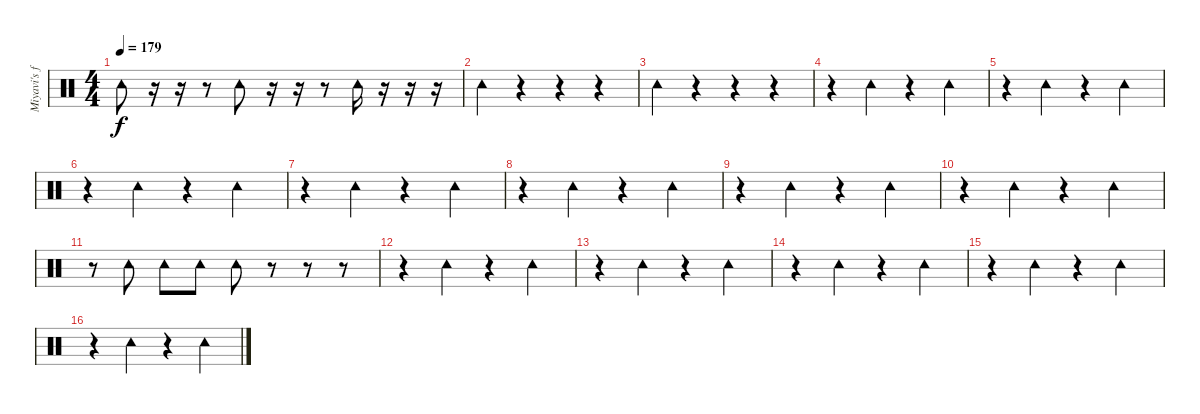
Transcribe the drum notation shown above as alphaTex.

\track ("Miyavi's foot" "Miyavi's f") {instrument percussion}
\staff {score}
\articulation defaults
\ts (4 4)
\tempo 179
\clef neutral
\ks c "Tambourine (hit)".8{dy f}
r.16 r.16 r.8 "Tambourine (hit)".8 r.16 r.16 r.8 "Tambourine (hit)".16 r.16 r.16 r.16 |
"Tambourine (hit)".4 r.4 r.4 r.4 |
"Tambourine (hit)".4 r.4 r.4 r.4 |
r.4 "Tambourine (hit)".4 r.4 "Tambourine (hit)".4 |
r.4 "Tambourine (hit)".4 r.4 "Tambourine (hit)".4 |
r.4 "Tambourine (hit)".4 r.4 "Tambourine (hit)".4 |
r.4 "Tambourine (hit)".4 r.4 "Tambourine (hit)".4 |
r.4 "Tambourine (hit)".4 r.4 "Tambourine (hit)".4 |
r.4 "Tambourine (hit)".4 r.4 "Tambourine (hit)".4 |
r.4 "Tambourine (hit)".4 r.4 "Tambourine (hit)".4 |
r.8 "Tambourine (hit)".8 "Tambourine (hit)".8 "Tambourine (hit)".8 "Tambourine (hit)".8 r.8 r.8 r.8 |
r.4 "Tambourine (hit)".4 r.4 "Tambourine (hit)".4 |
r.4 "Tambourine (hit)".4 r.4 "Tambourine (hit)".4 |
r.4 "Tambourine (hit)".4 r.4 "Tambourine (hit)".4 |
r.4 "Tambourine (hit)".4 r.4 "Tambourine (hit)".4 |
r.4 "Tambourine (hit)".4 r.4 "Tambourine (hit)".4
